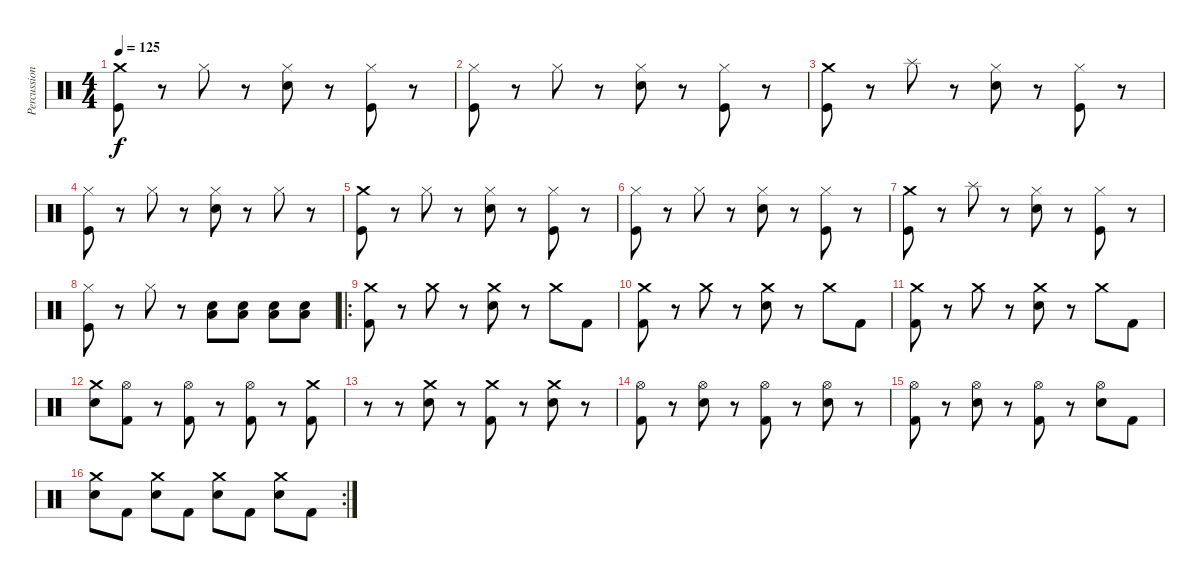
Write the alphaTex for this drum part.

\track ("Percussion" "Percussion") {instrument percussion}
\staff {score}
\articulation defaults
\ts (4 4)
\tempo 125
\clef neutral
\ks c
("Crash medium (hit)" "Kick (hit)").8{dy f} r.8 "Hi-Hat (closed)".8 r.8 ("Hi-Hat (closed)" "Electric Snare (hit)").8 r.8 ("Hi-Hat (closed)" "Kick (hit)").8 r.8 |
("Hi-Hat (closed)" "Kick (hit)").8 r.8 "Hi-Hat (closed)".8 r.8 ("Hi-Hat (closed)" "Electric Snare (hit)").8 r.8 ("Hi-Hat (closed)" "Kick (hit)").8 r.8 |
("Crash medium (hit)" "Kick (hit)").8 r.8 "Splash (hit)".8 r.8 ("Hi-Hat (closed)" "Electric Snare (hit)").8 r.8 ("Hi-Hat (closed)" "Kick (hit)").8 r.8 |
("Hi-Hat (closed)" "Kick (hit)").8 r.8 "Hi-Hat (closed)".8 r.8 ("Hi-Hat (closed)" "Electric Snare (hit)").8 r.8 "Hi-Hat (closed)".8 r.8 |
("Crash medium (hit)" "Kick (hit)").8 r.8 "Hi-Hat (closed)".8 r.8 ("Hi-Hat (closed)" "Electric Snare (hit)").8 r.8 ("Hi-Hat (closed)" "Kick (hit)").8 r.8 |
("Hi-Hat (closed)" "Kick (hit)").8 r.8 "Hi-Hat (closed)".8 r.8 ("Hi-Hat (closed)" "Electric Snare (hit)").8 r.8 ("Hi-Hat (closed)" "Kick (hit)").8 r.8 |
("Crash medium (hit)" "Kick (hit)").8 r.8 "Splash (hit)".8 r.8 ("Hi-Hat (closed)" "Electric Snare (hit)").8 r.8 ("Hi-Hat (closed)" "Kick (hit)").8 r.8 |
("Hi-Hat (closed)" "Kick (hit)").8 r.8 "Hi-Hat (closed)".8 r.8 ("Low Floor Tom (hit)" "Electric Snare (hit)").8 ("Low Floor Tom (hit)" "Electric Snare (hit)").8 ("Low Floor Tom (hit)" "Electric Snare (hit)").8 ("Low Floor Tom (hit)" "Electric Snare (hit)").8 |
\ro
("Crash medium (hit)" "Kick (hit) 2").8 r.8 "Crash medium (hit)".8 r.8 ("Crash medium (hit)" "Electric Snare (hit)").8 r.8 "Crash medium (hit)".8 "Kick (hit) 2".8 |
("Crash medium (hit)" "Kick (hit) 2").8 r.8 "Crash medium (hit)".8 r.8 ("Crash medium (hit)" "Electric Snare (hit)").8 r.8 "Crash medium (hit)".8 "Kick (hit) 2".8 |
("Crash medium (hit)" "Kick (hit) 2").8 r.8 "Crash medium (hit)".8 r.8 ("Crash medium (hit)" "Electric Snare (hit)").8 r.8 "Crash medium (hit)".8 "Kick (hit) 2".8 |
("Crash medium (hit)" "Electric Snare (hit)").8 ("Hi-Hat (open)" "Kick (hit) 2").8 r.8 ("Hi-Hat (open)" "Kick (hit) 2").8 r.8 ("Hi-Hat (open)" "Kick (hit) 2").8 r.8 ("Crash medium (hit)" "Kick (hit) 2").8 |
r.8 r.8 ("Crash medium (hit)" "Electric Snare (hit)").8 r.8 ("Crash medium (hit)" "Kick (hit) 2").8 r.8 ("Crash medium (hit)" "Electric Snare (hit)").8 r.8 |
("Hi-Hat (open)" "Kick (hit) 2").8 r.8 ("Hi-Hat (open)" "Electric Snare (hit)").8 r.8 ("Hi-Hat (open)" "Kick (hit) 2").8 r.8 ("Hi-Hat (open)" "Electric Snare (hit)").8 r.8 |
("Hi-Hat (open)" "Kick (hit) 2").8 r.8 ("Hi-Hat (open)" "Electric Snare (hit)").8 r.8 ("Hi-Hat (open)" "Kick (hit) 2").8 r.8 ("Hi-Hat (open)" "Electric Snare (hit)").8 "Kick (hit) 2".8 |
\rc 2
("Crash medium (hit)" "Electric Snare (hit)").8 "Kick (hit) 2".8 ("Crash medium (hit)" "Electric Snare (hit)").8 "Kick (hit) 2".8 ("Crash medium (hit)" "Electric Snare (hit)").8 "Kick (hit) 2".8 ("Crash medium (hit)" "Electric Snare (hit)").8 "Kick (hit) 2".8
